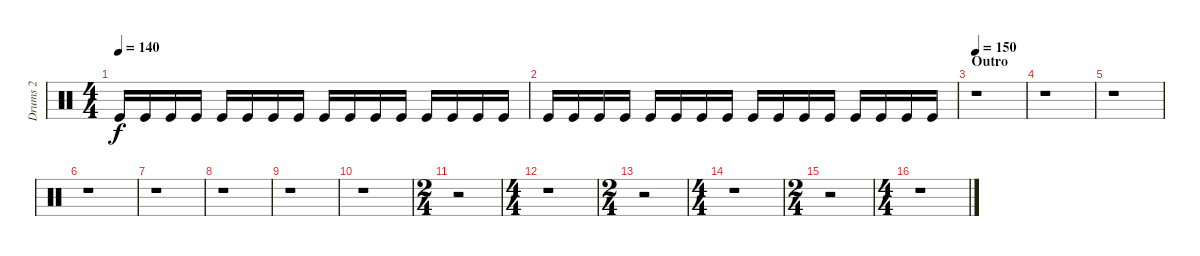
\track ("Drums 2" "Drums 2") {instrument percussion}
\staff {score}
\articulation defaults
\ts (4 4)
\tempo 140
\clef neutral
\ks c "Kick (hit)".16{dy f} "Kick (hit)".16 "Kick (hit)".16 "Kick (hit)".16 "Kick (hit)".16 "Kick (hit)".16 "Kick (hit)".16 "Kick (hit)".16 "Kick (hit)".16 "Kick (hit)".16 "Kick (hit)".16 "Kick (hit)".16 "Kick (hit)".16 "Kick (hit)".16 "Kick (hit)".16 "Kick (hit)".16
|
"Kick (hit)".16 "Kick (hit)".16 "Kick (hit)".16 "Kick (hit)".16 "Kick (hit)".16 "Kick (hit)".16 "Kick (hit)".16 "Kick (hit)".16 "Kick (hit)".16 "Kick (hit)".16 "Kick (hit)".16 "Kick (hit)".16 "Kick (hit)".16 "Kick (hit)".16 "Kick (hit)".16 "Kick (hit)".16 |
\section ("" "Outro")
\tempo 150
r.1 |
r.1 |
r.1 |
r.1 |
r.1 |
r.1 |
r.1 |
r.1 |
\ts (2 4)
r.2 |
\ts (4 4)
r.1 |
\ts (2 4)
r.2 |
\ts (4 4)
r.1 |
\ts (2 4)
r.2 |
\ts (4 4)
r.1
